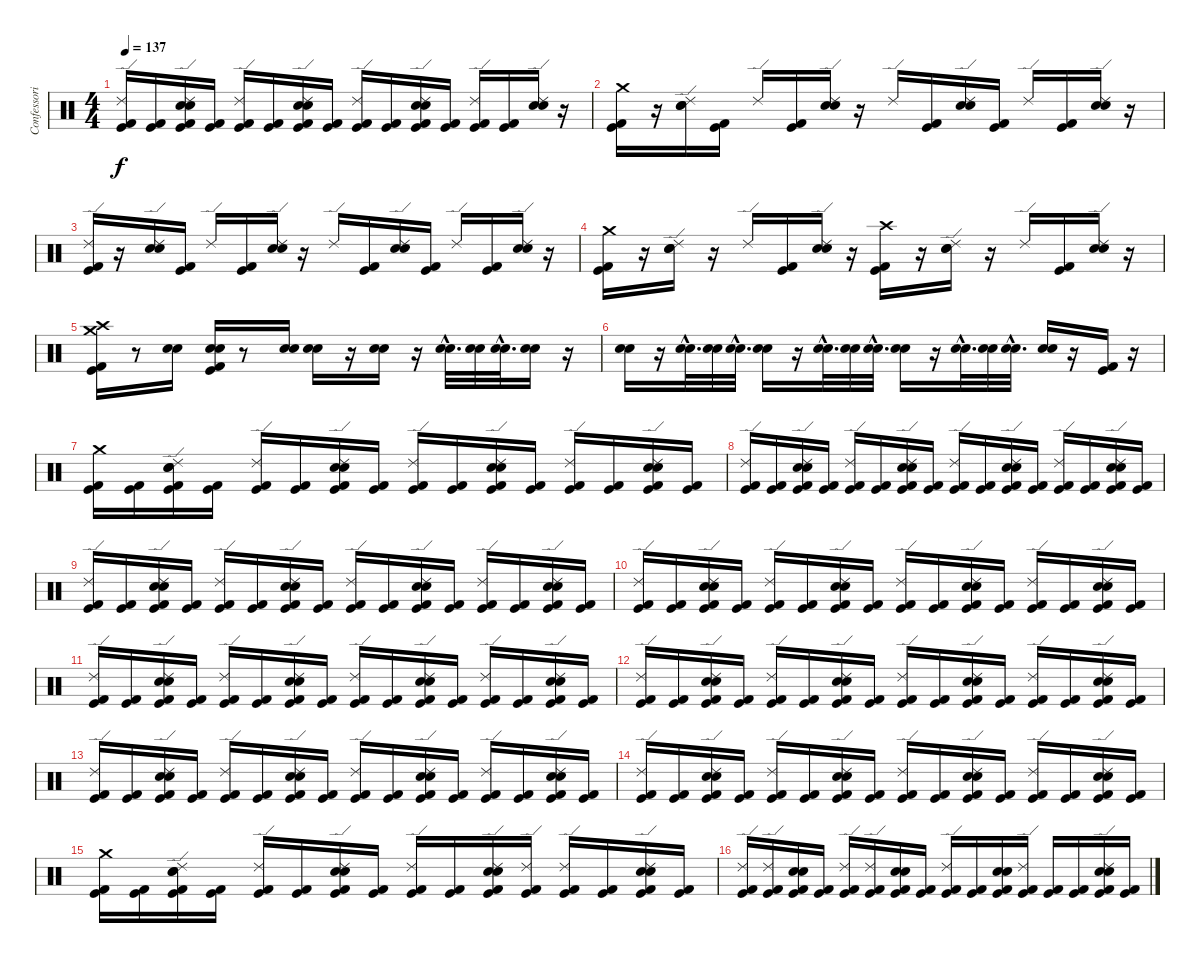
\track ("Confessori" "Confessori") {instrument percussion}
\staff {score}
\articulation defaults
\ts (4 4)
\tempo 137
\clef neutral
\ks c
("Ride (edge) 2" "Kick (hit) 2" "Kick (hit)").16{dy f} ("Kick (hit) 2" "Kick (hit)").16 ("Electric Snare (hit)" "Snare (hit) 2" "Ride (edge) 2" "Kick (hit) 2" "Kick (hit)").16 ("Kick (hit) 2" "Kick (hit)").16 ("Ride (edge) 2" "Kick (hit) 2" "Kick (hit)").16 ("Kick (hit) 2" "Kick (hit)").16 ("Electric Snare (hit)" "Snare (hit) 2" "Ride (edge) 2" "Kick (hit) 2" "Kick (hit)").16 ("Kick (hit) 2" "Kick (hit)").16 ("Ride (edge) 2" "Kick (hit) 2" "Kick (hit)").16 ("Kick (hit) 2" "Kick (hit)").16 ("Electric Snare (hit)" "Snare (hit) 2" "Ride (edge) 2" "Kick (hit) 2" "Kick (hit)").16 ("Kick (hit) 2" "Kick (hit)").16 ("Ride (edge) 2" "Kick (hit) 2" "Kick (hit)").16 ("Kick (hit) 2" "Kick (hit)").16 ("Ride (edge) 2" "Electric Snare (hit)" "Snare (hit) 2").16 r.16 |
("Crash medium (hit)" "Kick (hit) 2" "Kick (hit)").16 r.16 ("Electric Snare (hit)" "Snare (hit) 2" "Ride (edge) 2").16 ("Kick (hit) 2" "Kick (hit)").16 "Ride (edge) 2".16 ("Kick (hit) 2" "Kick (hit)").16 ("Electric Snare (hit)" "Snare (hit) 2" "Ride (edge) 2").16 r.16 "Ride (edge) 2".16 ("Kick (hit) 2" "Kick (hit)").16 ("Electric Snare (hit)" "Snare (hit) 2" "Ride (edge) 2").16 ("Kick (hit) 2" "Kick (hit)").16 "Ride (edge) 2".16 ("Kick (hit) 2" "Kick (hit)").16 ("Electric Snare (hit)" "Snare (hit) 2" "Ride (edge) 2").16 r.16 |
("Ride (edge) 2" "Kick (hit) 2" "Kick (hit)").16 r.16 ("Ride (edge) 2" "Electric Snare (hit)" "Snare (hit) 2").16 ("Kick (hit) 2" "Kick (hit)").16 "Ride (edge) 2".16 ("Kick (hit) 2" "Kick (hit)").16 ("Electric Snare (hit)" "Snare (hit) 2" "Ride (edge) 2").16 r.16 "Ride (edge) 2".16 ("Kick (hit) 2" "Kick (hit)").16 ("Electric Snare (hit)" "Snare (hit) 2" "Ride (edge) 2").16 ("Kick (hit) 2" "Kick (hit)").16 "Ride (edge) 2".16 ("Kick (hit) 2" "Kick (hit)").16 ("Electric Snare (hit)" "Snare (hit) 2" "Ride (edge) 2").16 r.16 |
("Kick (hit) 2" "Kick (hit)" "Crash medium (hit)").16 r.16 ("Electric Snare (hit)" "Snare (hit) 2" "Ride (edge) 2").16 r.16 "Ride (edge) 2".16 ("Kick (hit) 2" "Kick (hit)").16 ("Electric Snare (hit)" "Snare (hit) 2" "Ride (edge) 2").16 r.16 ("Crash high (hit)" "Kick (hit) 2" "Kick (hit)").16 r.16 ("Ride (edge) 2" "Electric Snare (hit)" "Snare (hit) 2").16 r.16 "Ride (edge) 2".16 ("Kick (hit)" "Kick (hit) 2").16 ("Ride (edge) 2" "Electric Snare (hit)" "Snare (hit) 2").16 r.16 |
("Crash high (hit)" "Crash medium (hit)" "Kick (hit) 2" "Kick (hit)").16 r.8 ("Electric Snare (hit)" "Snare (hit) 2").16 ("Electric Snare (hit)" "Snare (hit) 2" "Kick (hit) 2" "Kick (hit)").16 r.8 ("Electric Snare (hit)" "Snare (hit) 2").16 ("Electric Snare (hit)" "Snare (hit) 2").16 r.16 ("Electric Snare (hit)" "Snare (hit) 2").16 r.16 ("Electric Snare (hit)"{hac} "Snare (hit) 2"{hac}).32{d} ("Electric Snare (hit)" "Snare (hit) 2").32 ("Electric Snare (hit)"{hac} "Snare (hit) 2"{hac}).32{d} ("Electric Snare (hit)" "Snare (hit) 2").16 r.16 |
("Electric Snare (hit)" "Snare (hit) 2").16 r.16 ("Electric Snare (hit)"{hac} "Snare (hit) 2"{hac}).32{d} ("Electric Snare (hit)" "Snare (hit) 2").32 ("Electric Snare (hit)"{hac} "Snare (hit) 2"{hac}).32{d} ("Electric Snare (hit)" "Snare (hit) 2").16 r.16 ("Electric Snare (hit)"{hac} "Snare (hit) 2"{hac}).32{d} ("Electric Snare (hit)" "Snare (hit) 2").32 ("Electric Snare (hit)"{hac} "Snare (hit) 2"{hac}).32{d} ("Electric Snare (hit)" "Snare (hit) 2").16 r.16 ("Electric Snare (hit)"{hac} "Snare (hit) 2"{hac}).32{d} ("Electric Snare (hit)" "Snare (hit) 2").32 ("Electric Snare (hit)"{hac} "Snare (hit) 2"{hac}).32{d} ("Electric Snare (hit)" "Snare (hit) 2").16 r.16 ("Kick (hit) 2" "Kick (hit)").16 r.16 |
("Crash medium (hit)" "Kick (hit) 2" "Kick (hit)").16 ("Kick (hit) 2" "Kick (hit)").16 ("Electric Snare (hit)" "Snare (hit) 2" "Ride (edge) 2" "Kick (hit) 2" "Kick (hit)").16 ("Kick (hit) 2" "Kick (hit)").16 ("Ride (edge) 2" "Kick (hit) 2" "Kick (hit)").16 ("Kick (hit) 2" "Kick (hit)").16 ("Electric Snare (hit)" "Snare (hit) 2" "Ride (edge) 2" "Kick (hit) 2" "Kick (hit)").16 ("Kick (hit) 2" "Kick (hit)").16 ("Ride (edge) 2" "Kick (hit) 2" "Kick (hit)").16 ("Kick (hit) 2" "Kick (hit)").16 ("Electric Snare (hit)" "Snare (hit) 2" "Ride (edge) 2" "Kick (hit) 2" "Kick (hit)").16 ("Kick (hit) 2" "Kick (hit)").16 ("Ride (edge) 2" "Kick (hit) 2" "Kick (hit)").16 ("Kick (hit) 2" "Kick (hit)").16 ("Electric Snare (hit)" "Snare (hit) 2" "Ride (edge) 2" "Kick (hit) 2" "Kick (hit)").16 ("Kick (hit) 2" "Kick (hit)").16 |
("Ride (edge) 2" "Kick (hit) 2" "Kick (hit)").16 ("Kick (hit) 2" "Kick (hit)").16 ("Electric Snare (hit)" "Snare (hit) 2" "Ride (edge) 2" "Kick (hit) 2" "Kick (hit)").16 ("Kick (hit) 2" "Kick (hit)").16 ("Ride (edge) 2" "Kick (hit) 2" "Kick (hit)").16 ("Kick (hit) 2" "Kick (hit)").16 ("Electric Snare (hit)" "Snare (hit) 2" "Ride (edge) 2" "Kick (hit) 2" "Kick (hit)").16 ("Kick (hit) 2" "Kick (hit)").16 ("Ride (edge) 2" "Kick (hit) 2" "Kick (hit)").16 ("Kick (hit) 2" "Kick (hit)").16 ("Electric Snare (hit)" "Snare (hit) 2" "Ride (edge) 2" "Kick (hit) 2" "Kick (hit)").16 ("Kick (hit) 2" "Kick (hit)").16 ("Ride (edge) 2" "Kick (hit) 2" "Kick (hit)").16 ("Kick (hit) 2" "Kick (hit)").16 ("Electric Snare (hit)" "Snare (hit) 2" "Ride (edge) 2" "Kick (hit) 2" "Kick (hit)").16 ("Kick (hit) 2" "Kick (hit)").16 |
("Ride (edge) 2" "Kick (hit) 2" "Kick (hit)").16 ("Kick (hit) 2" "Kick (hit)").16 ("Electric Snare (hit)" "Snare (hit) 2" "Ride (edge) 2" "Kick (hit) 2" "Kick (hit)").16 ("Kick (hit) 2" "Kick (hit)").16 ("Ride (edge) 2" "Kick (hit) 2" "Kick (hit)").16 ("Kick (hit) 2" "Kick (hit)").16 ("Electric Snare (hit)" "Snare (hit) 2" "Ride (edge) 2" "Kick (hit) 2" "Kick (hit)").16 ("Kick (hit) 2" "Kick (hit)").16 ("Ride (edge) 2" "Kick (hit) 2" "Kick (hit)").16 ("Kick (hit) 2" "Kick (hit)").16 ("Electric Snare (hit)" "Snare (hit) 2" "Ride (edge) 2" "Kick (hit) 2" "Kick (hit)").16 ("Kick (hit) 2" "Kick (hit)").16 ("Ride (edge) 2" "Kick (hit) 2" "Kick (hit)").16 ("Kick (hit) 2" "Kick (hit)").16 ("Electric Snare (hit)" "Snare (hit) 2" "Ride (edge) 2" "Kick (hit) 2" "Kick (hit)").16 ("Kick (hit) 2" "Kick (hit)").16 |
("Ride (edge) 2" "Kick (hit) 2" "Kick (hit)").16 ("Kick (hit) 2" "Kick (hit)").16 ("Electric Snare (hit)" "Snare (hit) 2" "Ride (edge) 2" "Kick (hit) 2" "Kick (hit)").16 ("Kick (hit) 2" "Kick (hit)").16 ("Ride (edge) 2" "Kick (hit) 2" "Kick (hit)").16 ("Kick (hit) 2" "Kick (hit)").16 ("Electric Snare (hit)" "Snare (hit) 2" "Ride (edge) 2" "Kick (hit) 2" "Kick (hit)").16 ("Kick (hit) 2" "Kick (hit)").16 ("Ride (edge) 2" "Kick (hit) 2" "Kick (hit)").16 ("Kick (hit) 2" "Kick (hit)").16 ("Electric Snare (hit)" "Snare (hit) 2" "Ride (edge) 2" "Kick (hit) 2" "Kick (hit)").16 ("Kick (hit) 2" "Kick (hit)").16 ("Ride (edge) 2" "Kick (hit) 2" "Kick (hit)").16 ("Kick (hit) 2" "Kick (hit)").16 ("Electric Snare (hit)" "Snare (hit) 2" "Ride (edge) 2" "Kick (hit) 2" "Kick (hit)").16 ("Kick (hit) 2" "Kick (hit)").16 |
("Ride (edge) 2" "Kick (hit) 2" "Kick (hit)").16 ("Kick (hit) 2" "Kick (hit)").16 ("Electric Snare (hit)" "Snare (hit) 2" "Ride (edge) 2" "Kick (hit) 2" "Kick (hit)").16 ("Kick (hit) 2" "Kick (hit)").16 ("Ride (edge) 2" "Kick (hit) 2" "Kick (hit)").16 ("Kick (hit) 2" "Kick (hit)").16 ("Electric Snare (hit)" "Snare (hit) 2" "Ride (edge) 2" "Kick (hit) 2" "Kick (hit)").16 ("Kick (hit) 2" "Kick (hit)").16 ("Ride (edge) 2" "Kick (hit) 2" "Kick (hit)").16 ("Kick (hit) 2" "Kick (hit)").16 ("Electric Snare (hit)" "Snare (hit) 2" "Ride (edge) 2" "Kick (hit) 2" "Kick (hit)").16 ("Kick (hit) 2" "Kick (hit)").16 ("Ride (edge) 2" "Kick (hit) 2" "Kick (hit)").16 ("Kick (hit) 2" "Kick (hit)").16 ("Electric Snare (hit)" "Snare (hit) 2" "Ride (edge) 2" "Kick (hit) 2" "Kick (hit)").16 ("Kick (hit) 2" "Kick (hit)").16 |
("Ride (edge) 2" "Kick (hit) 2" "Kick (hit)").16 ("Kick (hit) 2" "Kick (hit)").16 ("Electric Snare (hit)" "Snare (hit) 2" "Ride (edge) 2" "Kick (hit) 2" "Kick (hit)").16 ("Kick (hit) 2" "Kick (hit)").16 ("Ride (edge) 2" "Kick (hit) 2" "Kick (hit)").16 ("Kick (hit) 2" "Kick (hit)").16 ("Electric Snare (hit)" "Snare (hit) 2" "Ride (edge) 2" "Kick (hit) 2" "Kick (hit)").16 ("Kick (hit) 2" "Kick (hit)").16 ("Ride (edge) 2" "Kick (hit) 2" "Kick (hit)").16 ("Kick (hit) 2" "Kick (hit)").16 ("Electric Snare (hit)" "Snare (hit) 2" "Ride (edge) 2" "Kick (hit) 2" "Kick (hit)").16 ("Kick (hit) 2" "Kick (hit)").16 ("Ride (edge) 2" "Kick (hit) 2" "Kick (hit)").16 ("Kick (hit) 2" "Kick (hit)").16 ("Electric Snare (hit)" "Snare (hit) 2" "Ride (edge) 2" "Kick (hit) 2" "Kick (hit)").16 ("Kick (hit) 2" "Kick (hit)").16 |
("Ride (edge) 2" "Kick (hit) 2" "Kick (hit)").16 ("Kick (hit) 2" "Kick (hit)").16 ("Electric Snare (hit)" "Snare (hit) 2" "Ride (edge) 2" "Kick (hit) 2" "Kick (hit)").16 ("Kick (hit) 2" "Kick (hit)").16 ("Ride (edge) 2" "Kick (hit) 2" "Kick (hit)").16 ("Kick (hit) 2" "Kick (hit)").16 ("Electric Snare (hit)" "Snare (hit) 2" "Ride (edge) 2" "Kick (hit) 2" "Kick (hit)").16 ("Kick (hit) 2" "Kick (hit)").16 ("Ride (edge) 2" "Kick (hit) 2" "Kick (hit)").16 ("Kick (hit) 2" "Kick (hit)").16 ("Electric Snare (hit)" "Snare (hit) 2" "Ride (edge) 2" "Kick (hit) 2" "Kick (hit)").16 ("Kick (hit) 2" "Kick (hit)").16 ("Ride (edge) 2" "Kick (hit) 2" "Kick (hit)").16 ("Kick (hit) 2" "Kick (hit)").16 ("Electric Snare (hit)" "Snare (hit) 2" "Ride (edge) 2" "Kick (hit) 2" "Kick (hit)").16 ("Kick (hit) 2" "Kick (hit)").16 |
("Ride (edge) 2" "Kick (hit) 2" "Kick (hit)").16 ("Kick (hit) 2" "Kick (hit)").16 ("Electric Snare (hit)" "Snare (hit) 2" "Ride (edge) 2" "Kick (hit) 2" "Kick (hit)").16 ("Kick (hit) 2" "Kick (hit)").16 ("Ride (edge) 2" "Kick (hit) 2" "Kick (hit)").16 ("Kick (hit) 2" "Kick (hit)").16 ("Electric Snare (hit)" "Snare (hit) 2" "Ride (edge) 2" "Kick (hit) 2" "Kick (hit)").16 ("Kick (hit) 2" "Kick (hit)").16 ("Ride (edge) 2" "Kick (hit) 2" "Kick (hit)").16 ("Kick (hit) 2" "Kick (hit)").16 ("Electric Snare (hit)" "Snare (hit) 2" "Ride (edge) 2" "Kick (hit) 2" "Kick (hit)").16 ("Kick (hit) 2" "Kick (hit)").16 ("Ride (edge) 2" "Kick (hit) 2" "Kick (hit)").16 ("Kick (hit) 2" "Kick (hit)").16 ("Electric Snare (hit)" "Snare (hit) 2" "Ride (edge) 2" "Kick (hit) 2" "Kick (hit)").16 ("Kick (hit) 2" "Kick (hit)").16 |
("Crash medium (hit)" "Kick (hit) 2" "Kick (hit)").16 ("Kick (hit) 2" "Kick (hit)").16 ("Electric Snare (hit)" "Snare (hit) 2" "Ride (edge) 2" "Kick (hit) 2" "Kick (hit)").16 ("Kick (hit) 2" "Kick (hit)").16 ("Ride (edge) 2" "Kick (hit) 2" "Kick (hit)").16 ("Kick (hit) 2" "Kick (hit)").16 ("Electric Snare (hit)" "Snare (hit) 2" "Ride (edge) 2" "Kick (hit) 2" "Kick (hit)").16 ("Kick (hit) 2" "Kick (hit)").16 ("Ride (edge) 2" "Kick (hit) 2" "Kick (hit)").16 ("Kick (hit) 2" "Kick (hit)").16 ("Electric Snare (hit)" "Snare (hit) 2" "Ride (edge) 2" "Kick (hit) 2" "Kick (hit)").16 ("Ride (edge) 2" "Kick (hit) 2" "Kick (hit)").16 ("Ride (edge) 2" "Kick (hit) 2" "Kick (hit)").16 ("Kick (hit) 2" "Kick (hit)").16 ("Electric Snare (hit)" "Snare (hit) 2" "Ride (edge) 2" "Kick (hit) 2" "Kick (hit)").16 ("Kick (hit) 2" "Kick (hit)").16 |
("Ride (edge) 2" "Kick (hit) 2" "Kick (hit)").16 ("Ride (edge) 2" "Kick (hit) 2" "Kick (hit)").16 ("Electric Snare (hit)" "Snare (hit) 2" "Kick (hit) 2" "Kick (hit)").16 ("Kick (hit) 2" "Kick (hit)").16 ("Ride (edge) 2" "Kick (hit) 2" "Kick (hit)").16 ("Ride (edge) 2" "Kick (hit) 2" "Kick (hit)").16 ("Electric Snare (hit)" "Snare (hit) 2" "Kick (hit) 2" "Kick (hit)").16 ("Kick (hit) 2" "Kick (hit)").16 ("Ride (edge) 2" "Kick (hit) 2" "Kick (hit)").16 ("Kick (hit) 2" "Kick (hit)").16 ("Electric Snare (hit)" "Snare (hit) 2" "Kick (hit) 2" "Kick (hit)").16 ("Ride (edge) 2" "Kick (hit) 2" "Kick (hit)").16 ("Kick (hit) 2" "Kick (hit)").16 ("Kick (hit) 2" "Kick (hit)").16 ("Electric Snare (hit)" "Snare (hit) 2" "Ride (edge) 2" "Kick (hit) 2" "Kick (hit)").16 ("Kick (hit) 2" "Kick (hit)").16
